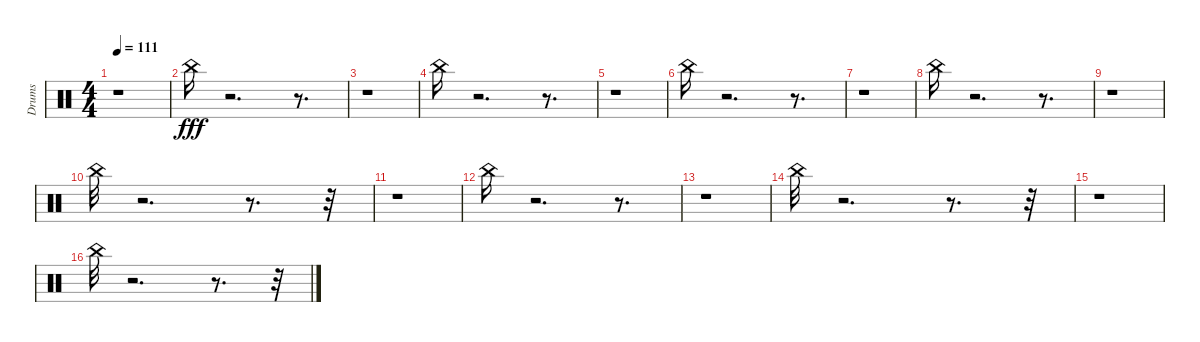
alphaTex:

\track ("Drums" "Drums") {instrument percussion}
\staff {score}
\articulation defaults
\ts (4 4)
\tempo 111
\clef neutral
\ks c
r.1{dy fff} |
"China (hit)".16 r.2{d} r.8{d} |
r.1 |
"China (hit)".16 r.2{d} r.8{d} |
r.1 |
"China (hit)".16 r.2{d} r.8{d} |
r.1 |
"China (hit)".16 r.2{d} r.8{d} |
r.1 |
"China (hit)".32 r.2{d} r.8{d} r.32 |
r.1 |
"China (hit)".16 r.2{d} r.8{d} |
r.1 |
"China (hit)".32 r.2{d} r.8{d} r.32 |
r.1 |
"China (hit)".32 r.2{d} r.8{d} r.32
